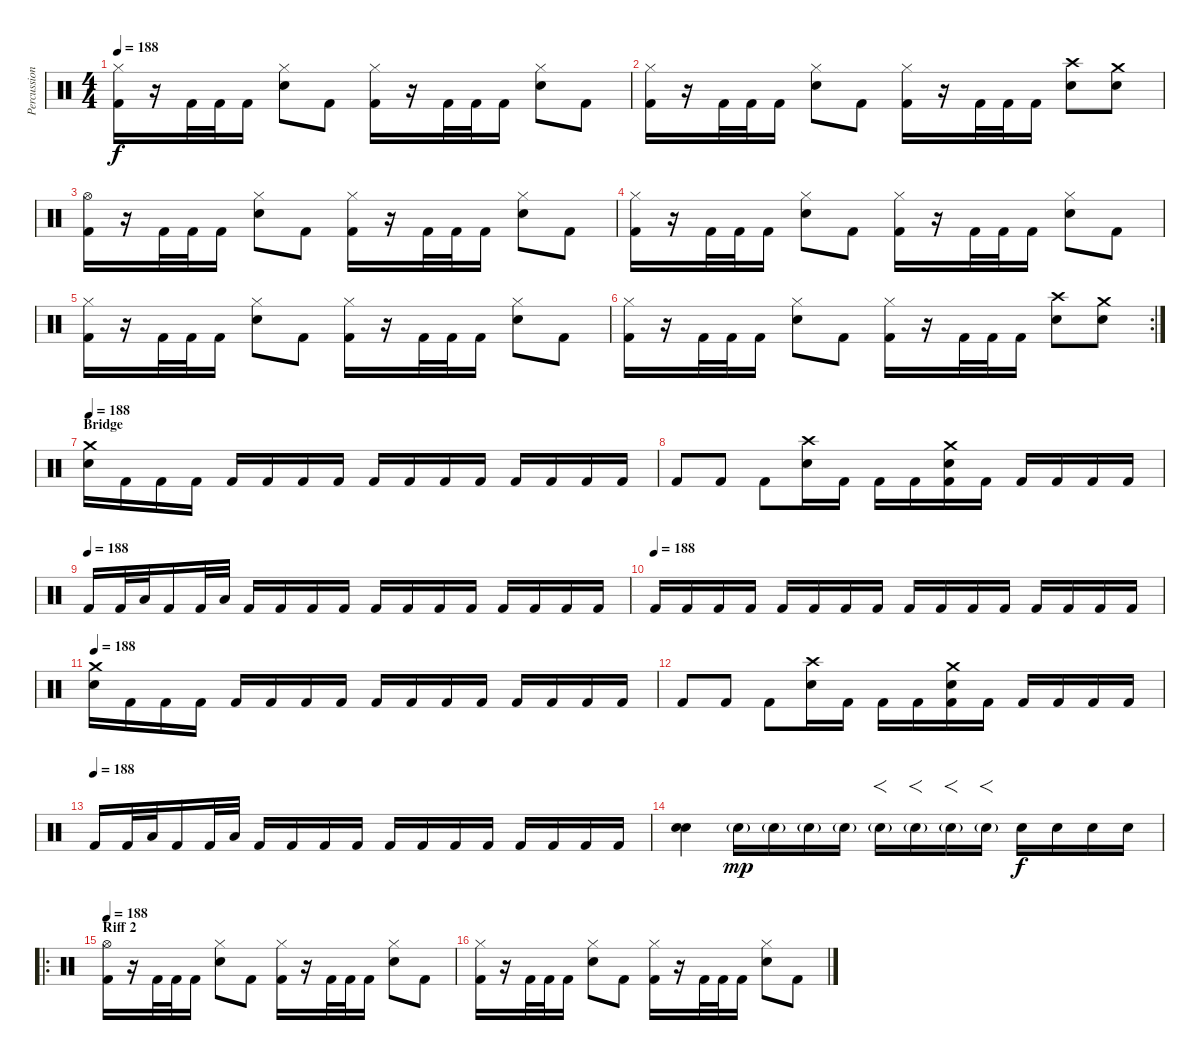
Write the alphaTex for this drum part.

\track ("Percussion" "Percussion") {instrument percussion}
\staff {score}
\articulation defaults
\ts (4 4)
\tempo 188
\clef neutral
\ks c
("Hi-Hat (closed)" "Kick (hit) 2").16{dy f} r.16 "Kick (hit) 2".32 "Kick (hit) 2".32 "Kick (hit) 2".16 ("Hi-Hat (closed)" "Electric Snare (hit)").8 "Kick (hit) 2".8 ("Hi-Hat (closed)" "Kick (hit) 2").16 r.16 "Kick (hit) 2".32 "Kick (hit) 2".32 "Kick (hit) 2".16 ("Hi-Hat (closed)" "Electric Snare (hit)").8 "Kick (hit) 2".8 |
("Hi-Hat (closed)" "Kick (hit) 2").16 r.16 "Kick (hit) 2".32 "Kick (hit) 2".32 "Kick (hit) 2".16 ("Hi-Hat (closed)" "Electric Snare (hit)").8 "Kick (hit) 2".8 ("Hi-Hat (closed)" "Kick (hit) 2").16 r.16 "Kick (hit) 2".32 "Kick (hit) 2".32 "Kick (hit) 2".16 ("Crash high (hit)" "Electric Snare (hit)").8 ("Crash medium (hit)" "Electric Snare (hit)").8 |
("Hi-Hat (open)" "Kick (hit) 2").16 r.16 "Kick (hit) 2".32 "Kick (hit) 2".32 "Kick (hit) 2".16 ("Hi-Hat (closed)" "Electric Snare (hit)").8 "Kick (hit) 2".8 ("Hi-Hat (closed)" "Kick (hit) 2").16 r.16 "Kick (hit) 2".32 "Kick (hit) 2".32 "Kick (hit) 2".16 ("Hi-Hat (closed)" "Electric Snare (hit)").8 "Kick (hit) 2".8 |
("Hi-Hat (closed)" "Kick (hit) 2").16 r.16 "Kick (hit) 2".32 "Kick (hit) 2".32 "Kick (hit) 2".16 ("Hi-Hat (closed)" "Electric Snare (hit)").8 "Kick (hit) 2".8 ("Hi-Hat (closed)" "Kick (hit) 2").16 r.16 "Kick (hit) 2".32 "Kick (hit) 2".32 "Kick (hit) 2".16 ("Hi-Hat (closed)" "Electric Snare (hit)").8 "Kick (hit) 2".8 |
("Hi-Hat (closed)" "Kick (hit) 2").16 r.16 "Kick (hit) 2".32 "Kick (hit) 2".32 "Kick (hit) 2".16 ("Hi-Hat (closed)" "Electric Snare (hit)").8 "Kick (hit) 2".8 ("Hi-Hat (closed)" "Kick (hit) 2").16 r.16 "Kick (hit) 2".32 "Kick (hit) 2".32 "Kick (hit) 2".16 ("Hi-Hat (closed)" "Electric Snare (hit)").8 "Kick (hit) 2".8 |
\rc 2
("Hi-Hat (closed)" "Kick (hit) 2").16 r.16 "Kick (hit) 2".32 "Kick (hit) 2".32 "Kick (hit) 2".16 ("Hi-Hat (closed)" "Electric Snare (hit)").8 "Kick (hit) 2".8 ("Hi-Hat (closed)" "Kick (hit) 2").16 r.16 "Kick (hit) 2".32 "Kick (hit) 2".32 "Kick (hit) 2".16 ("Crash high (hit)" "Electric Snare (hit)").8 ("Crash medium (hit)" "Electric Snare (hit)").8 |
\section ("" "Bridge")
\tempo 188
("Crash medium (hit)" "Electric Snare (hit)").16 "Kick (hit) 2".16 "Kick (hit) 2".16 "Kick (hit) 2".16 "Kick (hit) 2".16 "Kick (hit) 2".16 "Kick (hit) 2".16 "Kick (hit) 2".16 "Kick (hit) 2".16 "Kick (hit) 2".16 "Kick (hit) 2".16 "Kick (hit) 2".16 "Kick (hit) 2".16 "Kick (hit) 2".16 "Kick (hit) 2".16 "Kick (hit) 2".16 |
"Kick (hit) 2".8 "Kick (hit) 2".8 "Kick (hit) 2".8 ("Crash high (hit)" "Electric Snare (hit)").16 "Kick (hit) 2".16 "Kick (hit) 2".16 "Kick (hit) 2".16 ("Crash medium (hit)" "Electric Snare (hit)" "Kick (hit) 2").16 "Kick (hit) 2".16 "Kick (hit) 2".16 "Kick (hit) 2".16 "Kick (hit) 2".16 "Kick (hit) 2".16 |
\tempo (188)
"Kick (hit) 2".16 "Kick (hit) 2".32 "Low Floor Tom (hit)".32 "Kick (hit) 2".16 "Kick (hit) 2".32 "Low Floor Tom (hit)".32 "Kick (hit) 2".16 "Kick (hit) 2".16 "Kick (hit) 2".16 "Kick (hit) 2".16 "Kick (hit) 2".16 "Kick (hit) 2".16 "Kick (hit) 2".16 "Kick (hit) 2".16 "Kick (hit) 2".16 "Kick (hit) 2".16 "Kick (hit) 2".16 "Kick (hit) 2".16 |
\tempo (188)
"Kick (hit) 2".16 "Kick (hit) 2".16 "Kick (hit) 2".16 "Kick (hit) 2".16 "Kick (hit) 2".16 "Kick (hit) 2".16 "Kick (hit) 2".16 "Kick (hit) 2".16 "Kick (hit) 2".16 "Kick (hit) 2".16 "Kick (hit) 2".16 "Kick (hit) 2".16 "Kick (hit) 2".16 "Kick (hit) 2".16 "Kick (hit) 2".16 "Kick (hit) 2".16 |
\tempo 188
("Crash medium (hit)" "Electric Snare (hit)").16 "Kick (hit) 2".16 "Kick (hit) 2".16 "Kick (hit) 2".16 "Kick (hit) 2".16 "Kick (hit) 2".16 "Kick (hit) 2".16 "Kick (hit) 2".16 "Kick (hit) 2".16 "Kick (hit) 2".16 "Kick (hit) 2".16 "Kick (hit) 2".16 "Kick (hit) 2".16 "Kick (hit) 2".16 "Kick (hit) 2".16 "Kick (hit) 2".16 |
"Kick (hit) 2".8 "Kick (hit) 2".8 "Kick (hit) 2".8 ("Crash high (hit)" "Electric Snare (hit)").16 "Kick (hit) 2".16 "Kick (hit) 2".16 "Kick (hit) 2".16 ("Crash medium (hit)" "Electric Snare (hit)" "Kick (hit) 2").16 "Kick (hit) 2".16 "Kick (hit) 2".16 "Kick (hit) 2".16 "Kick (hit) 2".16 "Kick (hit) 2".16 |
\tempo (188)
"Kick (hit) 2".16 "Kick (hit) 2".32 "Low Floor Tom (hit)".32 "Kick (hit) 2".16 "Kick (hit) 2".32 "Low Floor Tom (hit)".32 "Kick (hit) 2".16 "Kick (hit) 2".16 "Kick (hit) 2".16 "Kick (hit) 2".16 "Kick (hit) 2".16 "Kick (hit) 2".16 "Kick (hit) 2".16 "Kick (hit) 2".16 "Kick (hit) 2".16 "Kick (hit) 2".16 "Kick (hit) 2".16 "Kick (hit) 2".16 |
("Electric Snare (hit)" "Snare (hit) 2").4 "Electric Snare (hit)"{g}.16{dy mp} "Electric Snare (hit)"{g}.16 "Electric Snare (hit)"{g}.16 "Electric Snare (hit)"{g}.16 "Electric Snare (hit)"{g}.16{f} "Electric Snare (hit)"{g}.16{f} "Electric Snare (hit)"{g}.16{f} "Electric Snare (hit)"{g}.16{f} "Electric Snare (hit)".16{dy f} "Electric Snare (hit)".16 "Electric Snare (hit)".16 "Electric Snare (hit)".16 |
\ro
\section ("" "Riff 2")
\tempo 188
("Hi-Hat (open)" "Kick (hit) 2").16 r.16 "Kick (hit) 2".32 "Kick (hit) 2".32 "Kick (hit) 2".16 ("Hi-Hat (closed)" "Electric Snare (hit)").8 "Kick (hit) 2".8 ("Hi-Hat (closed)" "Kick (hit) 2").16 r.16 "Kick (hit) 2".32 "Kick (hit) 2".32 "Kick (hit) 2".16 ("Hi-Hat (closed)" "Electric Snare (hit)").8 "Kick (hit) 2".8 |
("Hi-Hat (closed)" "Kick (hit) 2").16 r.16 "Kick (hit) 2".32 "Kick (hit) 2".32 "Kick (hit) 2".16 ("Hi-Hat (closed)" "Electric Snare (hit)").8 "Kick (hit) 2".8 ("Hi-Hat (closed)" "Kick (hit) 2").16 r.16 "Kick (hit) 2".32 "Kick (hit) 2".32 "Kick (hit) 2".16 ("Hi-Hat (closed)" "Electric Snare (hit)").8 "Kick (hit) 2".8
